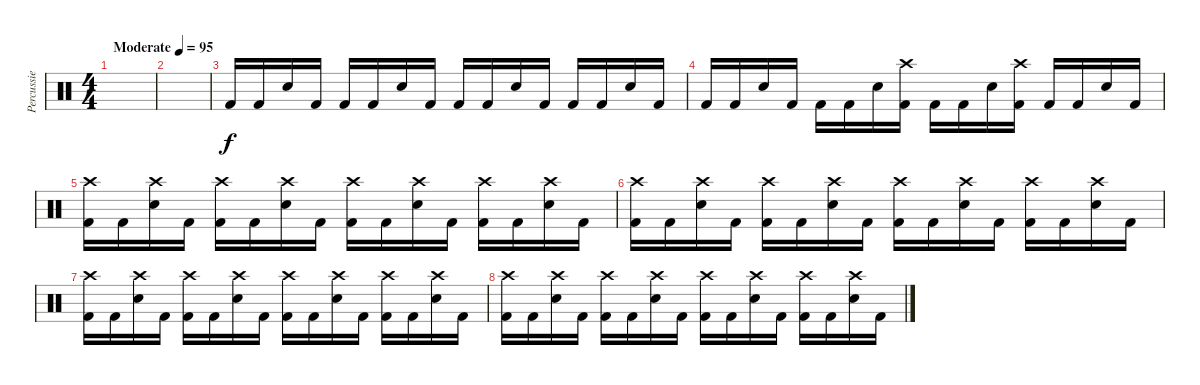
\track ("Percussie" "Percussie") {instrument percussion}
\staff {score}
\articulation defaults
\ts (4 4)
\tempo (95 "Moderate")
\clef neutral
\ks c
|
|
"Kick (hit) 2".16 "Kick (hit) 2".16 "Electric Snare (hit)".16 "Kick (hit) 2".16 "Kick (hit) 2".16 "Kick (hit) 2".16 "Electric Snare (hit)".16 "Kick (hit) 2".16 "Kick (hit) 2".16 "Kick (hit) 2".16 "Electric Snare (hit)".16 "Kick (hit) 2".16 "Kick (hit) 2".16 "Kick (hit) 2".16 "Electric Snare (hit)".16 "Kick (hit) 2".16 |
"Kick (hit) 2".16 "Kick (hit) 2".16 "Electric Snare (hit)".16 "Kick (hit) 2".16 "Kick (hit) 2".16 "Kick (hit) 2".16 "Electric Snare (hit)".16 ("Crash high (hit)" "Kick (hit) 2").16 "Kick (hit) 2".16 "Kick (hit) 2".16 "Electric Snare (hit)".16 ("Crash high (hit)" "Kick (hit) 2").16 "Kick (hit) 2".16 "Kick (hit) 2".16 "Electric Snare (hit)".16 "Kick (hit) 2".16 |
("Crash high (hit)" "Kick (hit) 2").16 "Kick (hit) 2".16 ("Crash high (hit)" "Electric Snare (hit)").16 "Kick (hit) 2".16 ("Crash high (hit)" "Kick (hit) 2").16 "Kick (hit) 2".16 ("Crash high (hit)" "Electric Snare (hit)").16 "Kick (hit) 2".16 ("Crash high (hit)" "Kick (hit) 2").16 "Kick (hit) 2".16 ("Crash high (hit)" "Electric Snare (hit)").16 "Kick (hit) 2".16 ("Crash high (hit)" "Kick (hit) 2").16 "Kick (hit) 2".16 ("Crash high (hit)" "Electric Snare (hit)").16 "Kick (hit) 2".16 |
("Crash high (hit)" "Kick (hit) 2").16 "Kick (hit) 2".16 ("Crash high (hit)" "Electric Snare (hit)").16 "Kick (hit) 2".16 ("Crash high (hit)" "Kick (hit) 2").16 "Kick (hit) 2".16 ("Crash high (hit)" "Electric Snare (hit)").16 "Kick (hit) 2".16 ("Crash high (hit)" "Kick (hit) 2").16 "Kick (hit) 2".16 ("Crash high (hit)" "Electric Snare (hit)").16 "Kick (hit) 2".16 ("Crash high (hit)" "Kick (hit) 2").16 "Kick (hit) 2".16 ("Crash high (hit)" "Electric Snare (hit)").16 "Kick (hit) 2".16 |
("Crash high (hit)" "Kick (hit) 2").16 "Kick (hit) 2".16 ("Crash high (hit)" "Electric Snare (hit)").16 "Kick (hit) 2".16 ("Crash high (hit)" "Kick (hit) 2").16 "Kick (hit) 2".16 ("Crash high (hit)" "Electric Snare (hit)").16 "Kick (hit) 2".16 ("Crash high (hit)" "Kick (hit) 2").16 "Kick (hit) 2".16 ("Crash high (hit)" "Electric Snare (hit)").16 "Kick (hit) 2".16 ("Crash high (hit)" "Kick (hit) 2").16 "Kick (hit) 2".16 ("Crash high (hit)" "Electric Snare (hit)").16 "Kick (hit) 2".16 |
("Crash high (hit)" "Kick (hit) 2").16 "Kick (hit) 2".16 ("Crash high (hit)" "Electric Snare (hit)").16 "Kick (hit) 2".16 ("Crash high (hit)" "Kick (hit) 2").16 "Kick (hit) 2".16 ("Crash high (hit)" "Electric Snare (hit)").16 "Kick (hit) 2".16 ("Crash high (hit)" "Kick (hit) 2").16 "Kick (hit) 2".16 ("Crash high (hit)" "Electric Snare (hit)").16 "Kick (hit) 2".16 ("Crash high (hit)" "Kick (hit) 2").16 "Kick (hit) 2".16 ("Crash high (hit)" "Electric Snare (hit)").16 "Kick (hit) 2".16
